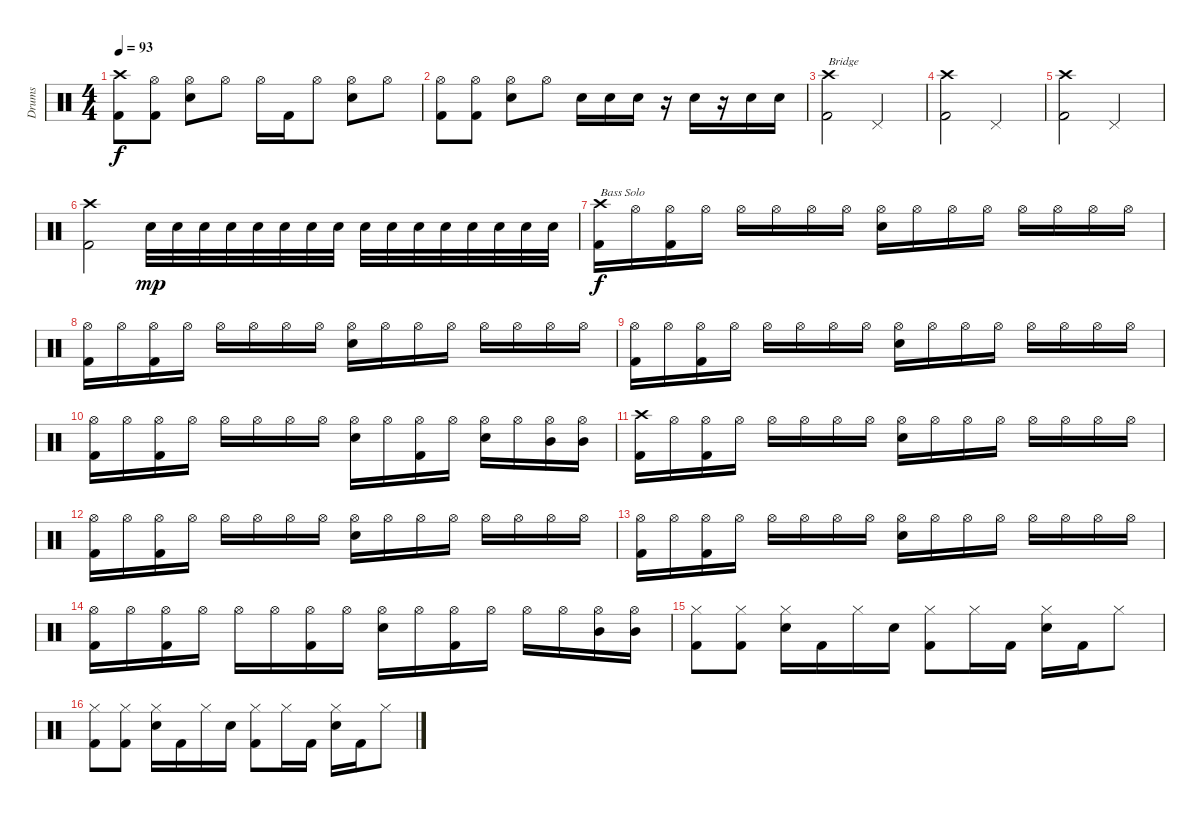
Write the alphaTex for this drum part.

\track ("Drums" "Drums") {instrument percussion}
\staff {score}
\articulation defaults
\ts (4 4)
\tempo 93
\clef neutral
\ks c
("Crash high (hit)" "Kick (hit) 2").8{dy f} ("Hi-Hat (open)" "Kick (hit) 2").8 ("Hi-Hat (open)" "Electric Snare (hit)").8 "Hi-Hat (open)".8 "Hi-Hat (open)".16 "Kick (hit) 2".16 "Hi-Hat (open)".8 ("Hi-Hat (open)" "Electric Snare (hit)").8 "Hi-Hat (open)".8 |
("Hi-Hat (open)" "Kick (hit) 2").8 ("Hi-Hat (open)" "Kick (hit) 2").8 ("Hi-Hat (open)" "Electric Snare (hit)").8 "Hi-Hat (open)".8 "Electric Snare (hit)".16 "Electric Snare (hit)".16 "Electric Snare (hit)".16 r.16 "Electric Snare (hit)".16 r.16 "Electric Snare (hit)".16 "Electric Snare (hit)".16 |
("Crash high (hit)" "Kick (hit) 2").2{txt "Bridge"} "Pedal Hi-Hat (hit)".2 |
("Crash high (hit)" "Kick (hit) 2").2 "Pedal Hi-Hat (hit)".2 |
("Crash high (hit)" "Kick (hit) 2").2 "Pedal Hi-Hat (hit)".2 |
("Crash high (hit)" "Kick (hit) 2").2 "Electric Snare (hit)".32{dy mp} "Electric Snare (hit)".32 "Electric Snare (hit)".32 "Electric Snare (hit)".32 "Electric Snare (hit)".32 "Electric Snare (hit)".32 "Electric Snare (hit)".32 "Electric Snare (hit)".32 "Electric Snare (hit)".32 "Electric Snare (hit)".32 "Electric Snare (hit)".32 "Electric Snare (hit)".32 "Electric Snare (hit)".32 "Electric Snare (hit)".32 "Electric Snare (hit)".32 "Electric Snare (hit)".32 |
("Crash high (hit)" "Kick (hit) 2").16{txt "Bass Solo" dy f} "Hi-Hat (open)".16 ("Hi-Hat (open)" "Kick (hit) 2").16 "Hi-Hat (open)".16 "Hi-Hat (open)".16 "Hi-Hat (open)".16 "Hi-Hat (open)".16 "Hi-Hat (open)".16 ("Hi-Hat (open)" "Electric Snare (hit)").16 "Hi-Hat (open)".16 "Hi-Hat (open)".16 "Hi-Hat (open)".16 "Hi-Hat (open)".16 "Hi-Hat (open)".16 "Hi-Hat (open)".16 "Hi-Hat (open)".16 |
("Hi-Hat (open)" "Kick (hit) 2").16 "Hi-Hat (open)".16 ("Hi-Hat (open)" "Kick (hit) 2").16 "Hi-Hat (open)".16 "Hi-Hat (open)".16 "Hi-Hat (open)".16 "Hi-Hat (open)".16 "Hi-Hat (open)".16 ("Hi-Hat (open)" "Electric Snare (hit)").16 "Hi-Hat (open)".16 "Hi-Hat (open)".16 "Hi-Hat (open)".16 "Hi-Hat (open)".16 "Hi-Hat (open)".16 "Hi-Hat (open)".16 "Hi-Hat (open)".16 |
("Hi-Hat (open)" "Kick (hit) 2").16 "Hi-Hat (open)".16 ("Hi-Hat (open)" "Kick (hit) 2").16 "Hi-Hat (open)".16 "Hi-Hat (open)".16 "Hi-Hat (open)".16 "Hi-Hat (open)".16 "Hi-Hat (open)".16 ("Hi-Hat (open)" "Electric Snare (hit)").16 "Hi-Hat (open)".16 "Hi-Hat (open)".16 "Hi-Hat (open)".16 "Hi-Hat (open)".16 "Hi-Hat (open)".16 "Hi-Hat (open)".16 "Hi-Hat (open)".16 |
("Hi-Hat (open)" "Kick (hit) 2").16 "Hi-Hat (open)".16 ("Hi-Hat (open)" "Kick (hit) 2").16 "Hi-Hat (open)".16 "Hi-Hat (open)".16 "Hi-Hat (open)".16 "Hi-Hat (open)".16 "Hi-Hat (open)".16 ("Hi-Hat (open)" "Electric Snare (hit)").16 "Hi-Hat (open)".16 ("Hi-Hat (open)" "Kick (hit) 2").16 "Hi-Hat (open)".16 ("Hi-Hat (open)" "Electric Snare (hit)").16 "Hi-Hat (open)".16 ("Hi-Hat (open)" "Mid Tom (hit)").16 ("Hi-Hat (open)" "Mid Tom (hit)").16 |
("Crash high (hit)" "Kick (hit) 2").16 "Hi-Hat (open)".16 ("Hi-Hat (open)" "Kick (hit) 2").16 "Hi-Hat (open)".16 "Hi-Hat (open)".16 "Hi-Hat (open)".16 "Hi-Hat (open)".16 "Hi-Hat (open)".16 ("Hi-Hat (open)" "Electric Snare (hit)").16 "Hi-Hat (open)".16 "Hi-Hat (open)".16 "Hi-Hat (open)".16 "Hi-Hat (open)".16 "Hi-Hat (open)".16 "Hi-Hat (open)".16 "Hi-Hat (open)".16 |
("Hi-Hat (open)" "Kick (hit) 2").16 "Hi-Hat (open)".16 ("Hi-Hat (open)" "Kick (hit) 2").16 "Hi-Hat (open)".16 "Hi-Hat (open)".16 "Hi-Hat (open)".16 "Hi-Hat (open)".16 "Hi-Hat (open)".16 ("Hi-Hat (open)" "Electric Snare (hit)").16 "Hi-Hat (open)".16 "Hi-Hat (open)".16 "Hi-Hat (open)".16 "Hi-Hat (open)".16 "Hi-Hat (open)".16 "Hi-Hat (open)".16 "Hi-Hat (open)".16 |
("Hi-Hat (open)" "Kick (hit) 2").16 "Hi-Hat (open)".16 ("Hi-Hat (open)" "Kick (hit) 2").16 "Hi-Hat (open)".16 "Hi-Hat (open)".16 "Hi-Hat (open)".16 "Hi-Hat (open)".16 "Hi-Hat (open)".16 ("Hi-Hat (open)" "Electric Snare (hit)").16 "Hi-Hat (open)".16 "Hi-Hat (open)".16 "Hi-Hat (open)".16 "Hi-Hat (open)".16 "Hi-Hat (open)".16 "Hi-Hat (open)".16 "Hi-Hat (open)".16 |
("Hi-Hat (open)" "Kick (hit) 2").16 "Hi-Hat (open)".16 ("Hi-Hat (open)" "Kick (hit) 2").16 "Hi-Hat (open)".16 "Hi-Hat (open)".16 "Hi-Hat (open)".16 ("Hi-Hat (open)" "Kick (hit) 2").16 "Hi-Hat (open)".16 ("Hi-Hat (open)" "Electric Snare (hit)").16 "Hi-Hat (open)".16 ("Hi-Hat (open)" "Kick (hit) 2").16 "Hi-Hat (open)".16 "Hi-Hat (open)".16 "Hi-Hat (open)".16 ("Hi-Hat (open)" "Mid Tom (hit)").16 ("Hi-Hat (open)" "Mid Tom (hit)").16 |
("Hi-Hat (closed)" "Kick (hit) 2").8 ("Hi-Hat (closed)" "Kick (hit) 2").8 ("Hi-Hat (closed)" "Electric Snare (hit)").16 "Kick (hit) 2".16 "Hi-Hat (closed)".16 "Electric Snare (hit)".16 ("Hi-Hat (closed)" "Kick (hit) 2").8 "Hi-Hat (closed)".16 "Kick (hit) 2".16 ("Hi-Hat (closed)" "Electric Snare (hit)").16 "Kick (hit) 2".16 "Hi-Hat (closed)".8 |
("Hi-Hat (closed)" "Kick (hit) 2").8 ("Hi-Hat (closed)" "Kick (hit) 2").8 ("Hi-Hat (closed)" "Electric Snare (hit)").16 "Kick (hit) 2".16 "Hi-Hat (closed)".16 "Electric Snare (hit)".16 ("Hi-Hat (closed)" "Kick (hit) 2").8 "Hi-Hat (closed)".16 "Kick (hit) 2".16 ("Hi-Hat (closed)" "Electric Snare (hit)").16 "Kick (hit) 2".16 "Hi-Hat (closed)".8
